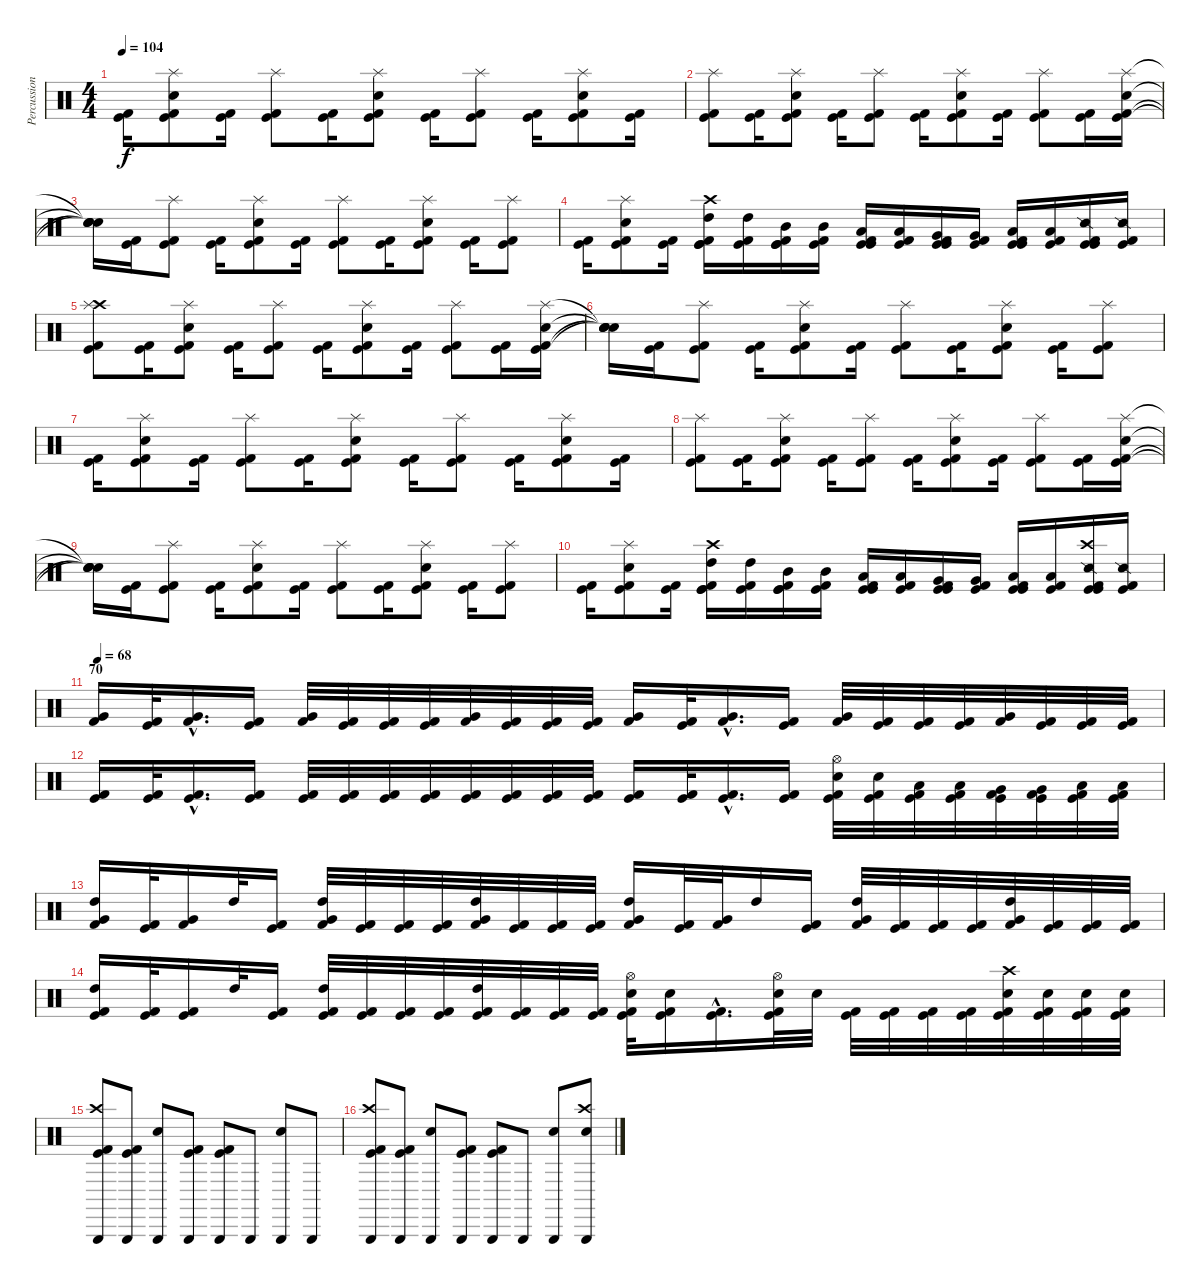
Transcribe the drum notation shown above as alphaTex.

\track ("Percussion" "Percussion") {instrument percussion}
\staff {score}
\articulation defaults
\ts (4 4)
\tempo 104
\clef neutral
\ks c
("Kick (hit)" "Kick (hit) 2").16{dy f} ("Kick (hit)" "Kick (hit) 2" "Snare (hit) 2" "Splash (hit)").8 ("Kick (hit)" "Kick (hit) 2").16 ("Kick (hit)" "Kick (hit) 2" "Splash (hit)").8 ("Kick (hit)" "Kick (hit) 2").16 ("Kick (hit)" "Kick (hit) 2" "Snare (hit) 2" "Splash (hit)").8 ("Kick (hit)" "Kick (hit) 2").16 ("Kick (hit)" "Kick (hit) 2" "Splash (hit)").8 ("Kick (hit)" "Kick (hit) 2").16 ("Kick (hit)" "Kick (hit) 2" "Snare (hit) 2" "Splash (hit)").8 ("Kick (hit)" "Kick (hit) 2").16 |
("Kick (hit)" "Kick (hit) 2" "Splash (hit)").8 ("Kick (hit)" "Kick (hit) 2").16 ("Kick (hit)" "Kick (hit) 2" "Snare (hit) 2" "Splash (hit)").8 ("Kick (hit)" "Kick (hit) 2").16 ("Kick (hit)" "Kick (hit) 2" "Splash (hit)").8 ("Kick (hit)" "Kick (hit) 2").16 ("Kick (hit)" "Kick (hit) 2" "Snare (hit) 2" "Splash (hit)").8 ("Kick (hit)" "Kick (hit) 2").16 ("Kick (hit)" "Kick (hit) 2" "Splash (hit)").8 ("Kick (hit)" "Kick (hit) 2").16 ("Kick (hit)" "Kick (hit) 2" "Snare (hit) 2" "Splash (hit)").16 |
("Snare (hit)"{t} "Snare (hit)"{t} "Snare (hit)"{t} "Snare (hit)"{t}).16 ("Kick (hit)" "Kick (hit) 2").16 ("Kick (hit)" "Kick (hit) 2" "Splash (hit)").8 ("Kick (hit)" "Kick (hit) 2").16 ("Kick (hit)" "Kick (hit) 2" "Snare (hit) 2" "Splash (hit)").8 ("Kick (hit)" "Kick (hit) 2").16 ("Kick (hit)" "Kick (hit) 2" "Splash (hit)").8 ("Kick (hit)" "Kick (hit) 2").16 ("Kick (hit)" "Kick (hit) 2" "Snare (hit) 2" "Splash (hit)").8 ("Kick (hit)" "Kick (hit) 2").16 ("Kick (hit)" "Kick (hit) 2" "Splash (hit)").8 |
("Kick (hit)" "Kick (hit) 2").16 ("Kick (hit)" "Kick (hit) 2" "Snare (hit) 2" "Splash (hit)").8 ("Kick (hit)" "Kick (hit) 2").16 ("Kick (hit)" "Kick (hit)" "Kick (hit) 2" "High Tom (hit)" "Crash high (hit)").16 ("Kick (hit)" "Kick (hit) 2" "High Tom (hit)").16 ("Kick (hit)" "Kick (hit)" "Kick (hit) 2" "Mid Tom (hit)").16 ("Kick (hit)" "Kick (hit) 2" "Mid Tom (hit)").16 ("Kick (hit)" "Kick (hit)" "Kick (hit) 2" "Low Tom (hit)").16 ("Kick (hit)" "Kick (hit) 2" "Low Tom (hit)").16 ("Kick (hit)" "Kick (hit)" "Kick (hit) 2" "Very Low Tom (hit)").16 ("Kick (hit)" "Kick (hit) 2" "Very Low Tom (hit)").16 ("Kick (hit)" "Kick (hit)" "Kick (hit) 2" "Low Floor Tom (hit)").16 ("Kick (hit)" "Kick (hit) 2" "Low Floor Tom (hit)").16 ("Snare (side stick) 2" "Kick (hit)" "Kick (hit)" "Kick (hit) 2").16 ("Snare (side stick) 2" "Kick (hit)" "Kick (hit) 2").16 |
("Kick (hit)" "Kick (hit) 2" "Crash high (hit)" "Splash (hit)").8 ("Kick (hit)" "Kick (hit) 2").16 ("Kick (hit)" "Kick (hit) 2" "Snare (hit) 2" "Splash (hit)").8 ("Kick (hit)" "Kick (hit) 2").16 ("Kick (hit)" "Kick (hit) 2" "Splash (hit)").8 ("Kick (hit)" "Kick (hit) 2").16 ("Kick (hit)" "Kick (hit) 2" "Snare (hit) 2" "Splash (hit)").8 ("Kick (hit)" "Kick (hit) 2").16 ("Kick (hit)" "Kick (hit) 2" "Splash (hit)").8 ("Kick (hit)" "Kick (hit) 2").16 ("Kick (hit)" "Kick (hit) 2" "Snare (hit) 2" "Splash (hit)").16 |
("Snare (hit)"{t} "Snare (hit)"{t} "Snare (hit)"{t} "Snare (hit)"{t}).16 ("Kick (hit)" "Kick (hit) 2").16 ("Kick (hit)" "Kick (hit) 2" "Splash (hit)").8 ("Kick (hit)" "Kick (hit) 2").16 ("Kick (hit)" "Kick (hit) 2" "Snare (hit) 2" "Splash (hit)").8 ("Kick (hit)" "Kick (hit) 2").16 ("Kick (hit)" "Kick (hit) 2" "Splash (hit)").8 ("Kick (hit)" "Kick (hit) 2").16 ("Kick (hit)" "Kick (hit) 2" "Snare (hit) 2" "Splash (hit)").8 ("Kick (hit)" "Kick (hit) 2").16 ("Kick (hit)" "Kick (hit) 2" "Splash (hit)").8 |
("Kick (hit)" "Kick (hit) 2").16 ("Kick (hit)" "Kick (hit) 2" "Snare (hit) 2" "Splash (hit)").8 ("Kick (hit)" "Kick (hit) 2").16 ("Kick (hit)" "Kick (hit) 2" "Splash (hit)").8 ("Kick (hit)" "Kick (hit) 2").16 ("Kick (hit)" "Kick (hit) 2" "Snare (hit) 2" "Splash (hit)").8 ("Kick (hit)" "Kick (hit) 2").16 ("Kick (hit)" "Kick (hit) 2" "Splash (hit)").8 ("Kick (hit)" "Kick (hit) 2").16 ("Kick (hit)" "Kick (hit) 2" "Snare (hit) 2" "Splash (hit)").8 ("Kick (hit)" "Kick (hit) 2").16 |
("Kick (hit)" "Kick (hit) 2" "Splash (hit)").8 ("Kick (hit)" "Kick (hit) 2").16 ("Kick (hit)" "Kick (hit) 2" "Snare (hit) 2" "Splash (hit)").8 ("Kick (hit)" "Kick (hit) 2").16 ("Kick (hit)" "Kick (hit) 2" "Splash (hit)").8 ("Kick (hit)" "Kick (hit) 2").16 ("Kick (hit)" "Kick (hit) 2" "Snare (hit) 2" "Splash (hit)").8 ("Kick (hit)" "Kick (hit) 2").16 ("Kick (hit)" "Kick (hit) 2" "Splash (hit)").8 ("Kick (hit)" "Kick (hit) 2").16 ("Kick (hit)" "Kick (hit) 2" "Snare (hit) 2" "Splash (hit)").16 |
("Snare (hit)"{t} "Snare (hit)"{t} "Snare (hit)"{t} "Snare (hit)"{t}).16 ("Kick (hit)" "Kick (hit) 2").16 ("Kick (hit)" "Kick (hit) 2" "Splash (hit)").8 ("Kick (hit)" "Kick (hit) 2").16 ("Kick (hit)" "Kick (hit) 2" "Snare (hit) 2" "Splash (hit)").8 ("Kick (hit)" "Kick (hit) 2").16 ("Kick (hit)" "Kick (hit) 2" "Splash (hit)").8 ("Kick (hit)" "Kick (hit) 2").16 ("Kick (hit)" "Kick (hit) 2" "Snare (hit) 2" "Splash (hit)").8 ("Kick (hit)" "Kick (hit) 2").16 ("Kick (hit)" "Kick (hit) 2" "Splash (hit)").8 |
("Kick (hit)" "Kick (hit) 2").16 ("Kick (hit)" "Kick (hit) 2" "Snare (hit) 2" "Splash (hit)").8 ("Kick (hit)" "Kick (hit) 2").16 ("Kick (hit)" "Kick (hit)" "Kick (hit) 2" "High Tom (hit)" "Crash high (hit)").16 ("Kick (hit)" "Kick (hit) 2" "High Tom (hit)").16 ("Kick (hit)" "Kick (hit)" "Kick (hit) 2" "Mid Tom (hit)").16 ("Kick (hit)" "Kick (hit) 2" "Mid Tom (hit)").16 ("Kick (hit)" "Kick (hit)" "Kick (hit) 2" "Low Tom (hit)").16 ("Kick (hit)" "Kick (hit) 2" "Low Tom (hit)").16 ("Kick (hit)" "Kick (hit)" "Kick (hit) 2" "Very Low Tom (hit)").16 ("Kick (hit)" "Kick (hit) 2" "Very Low Tom (hit)").16 ("Kick (hit)" "Kick (hit)" "Kick (hit) 2" "Low Floor Tom (hit)").16 ("Kick (hit)" "Kick (hit) 2" "Low Floor Tom (hit)").16 ("Snare (side stick) 2" "Kick (hit)" "Kick (hit)" "Kick (hit) 2" "Crash high (hit)").16 ("Snare (side stick) 2" "Kick (hit)" "Kick (hit) 2").16 |
\section ("" "70")
\tempo 68
("Kick (hit) 2" "Very Low Tom (hit)").16 ("Kick (hit)" "Kick (hit) 2").32 ("Kick (hit) 2"{hac} "Very Low Tom (hit)"{hac}).16{d} ("Kick (hit)" "Kick (hit) 2").16 ("Kick (hit) 2" "Very Low Tom (hit)").32 ("Kick (hit)" "Kick (hit) 2").32 ("Kick (hit)" "Kick (hit) 2").32 ("Kick (hit)" "Kick (hit) 2").32 ("Kick (hit) 2" "Very Low Tom (hit)").32 ("Kick (hit)" "Kick (hit) 2").32 ("Kick (hit)" "Kick (hit) 2").32 ("Kick (hit)" "Kick (hit) 2").32 ("Kick (hit) 2" "Very Low Tom (hit)").16 ("Kick (hit)" "Kick (hit) 2").32 ("Kick (hit) 2"{hac} "Very Low Tom (hit)"{hac}).16{d} ("Kick (hit)" "Kick (hit) 2").16 ("Kick (hit) 2" "Very Low Tom (hit)").32 ("Kick (hit)" "Kick (hit) 2").32 ("Kick (hit)" "Kick (hit) 2").32 ("Kick (hit)" "Kick (hit) 2").32 ("Kick (hit) 2" "Very Low Tom (hit)").32 ("Kick (hit)" "Kick (hit) 2").32 ("Kick (hit)" "Kick (hit) 2").32 ("Kick (hit)" "Kick (hit) 2").32 |
("Kick (hit)" "Kick (hit) 2").16 ("Kick (hit)" "Kick (hit) 2").32 ("Kick (hit)"{hac} "Kick (hit) 2"{hac}).16{d} ("Kick (hit)" "Kick (hit) 2").16 ("Kick (hit)" "Kick (hit) 2").32 ("Kick (hit)" "Kick (hit) 2").32 ("Kick (hit)" "Kick (hit) 2").32 ("Kick (hit)" "Kick (hit) 2").32 ("Kick (hit)" "Kick (hit) 2").32 ("Kick (hit)" "Kick (hit) 2").32 ("Kick (hit)" "Kick (hit) 2").32 ("Kick (hit)" "Kick (hit) 2").32 ("Kick (hit)" "Kick (hit) 2").16 ("Kick (hit)" "Kick (hit) 2").32 ("Kick (hit)"{hac} "Kick (hit) 2"{hac}).16{d} ("Kick (hit)" "Kick (hit) 2").16 ("Kick (hit)" "Kick (hit) 2" "Snare (hit) 2" "Hi-Hat (open)").32 ("Kick (hit)" "Kick (hit) 2" "Snare (hit) 2").32 ("Kick (hit)" "Kick (hit) 2" "Low Tom (hit)").32 ("Kick (hit)" "Kick (hit) 2" "Low Tom (hit)").32 ("Kick (hit)" "Kick (hit) 2" "Very Low Tom (hit)").32 ("Kick (hit)" "Kick (hit) 2" "Very Low Tom (hit)").32 ("Kick (hit)" "Kick (hit) 2" "Low Floor Tom (hit)").32 ("Kick (hit)" "Kick (hit) 2" "Low Floor Tom (hit)").32 |
("Kick (hit) 2" "Very Low Tom (hit)" "High Tom (hit)").16 ("Kick (hit)" "Kick (hit) 2").32 ("Kick (hit) 2" "Very Low Tom (hit)").16 "High Tom (hit)".32 ("Kick (hit)" "Kick (hit) 2").16 ("Kick (hit) 2" "Very Low Tom (hit)" "High Tom (hit)").32 ("Kick (hit)" "Kick (hit) 2").32 ("Kick (hit)" "Kick (hit) 2").32 ("Kick (hit)" "Kick (hit) 2").32 ("Kick (hit) 2" "Very Low Tom (hit)" "High Tom (hit)").32 ("Kick (hit)" "Kick (hit) 2").32 ("Kick (hit)" "Kick (hit) 2").32 ("Kick (hit)" "Kick (hit) 2").32 ("Kick (hit) 2" "Very Low Tom (hit)" "High Tom (hit)").16 ("Kick (hit)" "Kick (hit) 2").32 ("Kick (hit) 2" "Very Low Tom (hit)").32 "High Tom (hit)".16 ("Kick (hit)" "Kick (hit) 2").16 ("Kick (hit) 2" "Very Low Tom (hit)" "High Tom (hit)").32 ("Kick (hit)" "Kick (hit) 2").32 ("Kick (hit)" "Kick (hit) 2").32 ("Kick (hit)" "Kick (hit) 2").32 ("Kick (hit) 2" "Very Low Tom (hit)" "High Tom (hit)").32 ("Kick (hit)" "Kick (hit) 2").32 ("Kick (hit)" "Kick (hit) 2").32 ("Kick (hit)" "Kick (hit) 2").32 |
("Kick (hit)" "Kick (hit) 2" "High Tom (hit)").16 ("Kick (hit)" "Kick (hit) 2").32 ("Kick (hit)" "Kick (hit) 2").16 "High Tom (hit)".32 ("Kick (hit)" "Kick (hit) 2").16 ("Kick (hit)" "Kick (hit) 2" "High Tom (hit)").32 ("Kick (hit)" "Kick (hit) 2").32 ("Kick (hit)" "Kick (hit) 2").32 ("Kick (hit)" "Kick (hit) 2").32 ("Kick (hit)" "Kick (hit) 2" "High Tom (hit)").32 ("Kick (hit)" "Kick (hit) 2").32 ("Kick (hit)" "Kick (hit) 2").32 ("Kick (hit)" "Kick (hit) 2").32 ("Kick (hit)" "Kick (hit) 2" "Snare (hit) 2" "Hi-Hat (open)").32 ("Kick (hit)" "Kick (hit) 2" "Snare (hit) 2").16 ("Kick (hit)"{hac} "Kick (hit) 2"{hac}).16{d} ("Kick (hit)" "Kick (hit) 2" "Snare (hit) 2" "Hi-Hat (open)").32 "Snare (hit) 2".32 ("Kick (hit)" "Kick (hit) 2").32 ("Kick (hit)" "Kick (hit) 2").32 ("Kick (hit)" "Kick (hit) 2").32 ("Kick (hit)" "Kick (hit) 2").32 ("Kick (hit)" "Kick (hit) 2" "Snare (hit) 2" "Crash high (hit)").32 ("Kick (hit)" "Kick (hit) 2" "Snare (hit) 2").32 ("Kick (hit)" "Kick (hit) 2" "Snare (hit) 2").32 ("Kick (hit)" "Kick (hit) 2" "Snare (hit) 2").32 |
\section ("" "")
("Kick (hit)" "Kick (hit) 2" "Crash high (hit)" "Triangle (hit)").8 ("Kick (hit)" "Kick (hit) 2" "Triangle (hit)").8 ("Snare (hit) 2" "Triangle (hit)").8 ("Kick (hit)" "Kick (hit) 2" "Triangle (hit)").8 ("Kick (hit)" "Kick (hit) 2" "Triangle (hit)").8 "Triangle (hit)".8 ("Snare (hit) 2" "Triangle (hit)").8 "Triangle (hit)".8 |
("Kick (hit)" "Kick (hit) 2" "Crash high (hit)" "Triangle (hit)").8 ("Kick (hit)" "Kick (hit) 2" "Triangle (hit)").8 ("Snare (hit) 2" "Triangle (hit)").8 ("Kick (hit)" "Kick (hit) 2" "Triangle (hit)").8 ("Kick (hit)" "Kick (hit) 2" "Triangle (hit)").8 "Triangle (hit)".8 ("Snare (hit) 2" "Triangle (hit)").8 ("Snare (hit) 2" "Crash high (hit)" "Triangle (hit)").8
